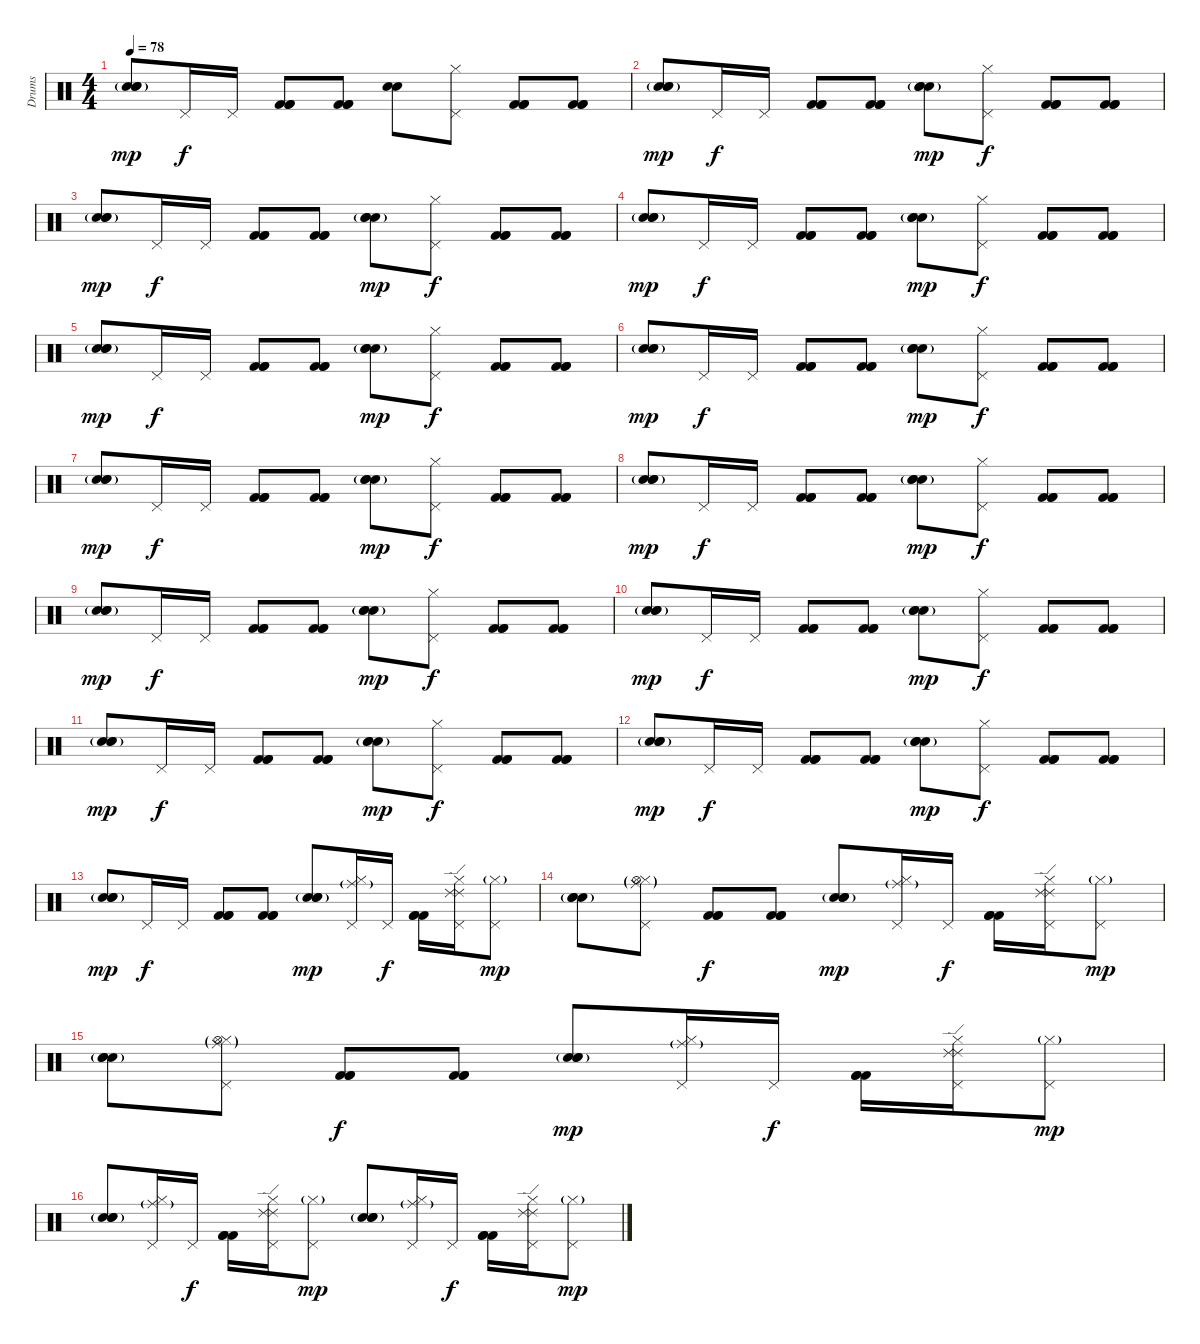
\track ("Drums" "Drums") {instrument percussion}
\staff {score}
\articulation defaults
\ts (4 4)
\tempo 78
\clef neutral
\ks c
("Electric Snare (hit)" "Electric Snare (hit)" "Snare (hit) 2"{g}).8{dy mp} "Pedal Hi-Hat (hit)".16{dy f} "Pedal Hi-Hat (hit)".16 ("Kick (hit) 2" "Kick (hit) 2" "Kick (hit) 2").8 ("Kick (hit) 2" "Kick (hit) 2" "Kick (hit) 2").8 ("Electric Snare (hit)" "Electric Snare (hit)").8 ("Pedal Hi-Hat (hit)" "Hi-Hat (closed)").8 ("Kick (hit) 2" "Kick (hit) 2" "Kick (hit) 2").8 ("Kick (hit) 2" "Kick (hit) 2" "Kick (hit) 2").8 |
("Electric Snare (hit)" "Electric Snare (hit)" "Snare (hit) 2"{g}).8{dy mp} "Pedal Hi-Hat (hit)".16{dy f} "Pedal Hi-Hat (hit)".16 ("Kick (hit) 2" "Kick (hit) 2" "Kick (hit) 2").8 ("Kick (hit) 2" "Kick (hit) 2" "Kick (hit) 2").8 ("Electric Snare (hit)" "Electric Snare (hit)" "Snare (hit) 2"{g}).8{dy mp} ("Pedal Hi-Hat (hit)" "Hi-Hat (closed)").8{dy f} ("Kick (hit) 2" "Kick (hit) 2" "Kick (hit) 2").8 ("Kick (hit) 2" "Kick (hit) 2" "Kick (hit) 2").8 |
("Electric Snare (hit)" "Electric Snare (hit)" "Snare (hit) 2"{g}).8{dy mp} "Pedal Hi-Hat (hit)".16{dy f} "Pedal Hi-Hat (hit)".16 ("Kick (hit) 2" "Kick (hit) 2" "Kick (hit) 2").8 ("Kick (hit) 2" "Kick (hit) 2" "Kick (hit) 2").8 ("Electric Snare (hit)" "Electric Snare (hit)" "Snare (hit) 2"{g}).8{dy mp} ("Pedal Hi-Hat (hit)" "Hi-Hat (closed)").8{dy f} ("Kick (hit) 2" "Kick (hit) 2" "Kick (hit) 2").8 ("Kick (hit) 2" "Kick (hit) 2" "Kick (hit) 2").8 |
("Electric Snare (hit)" "Electric Snare (hit)" "Snare (hit) 2"{g}).8{dy mp} "Pedal Hi-Hat (hit)".16{dy f} "Pedal Hi-Hat (hit)".16 ("Kick (hit) 2" "Kick (hit) 2" "Kick (hit) 2").8 ("Kick (hit) 2" "Kick (hit) 2" "Kick (hit) 2").8 ("Electric Snare (hit)" "Electric Snare (hit)" "Snare (hit) 2"{g}).8{dy mp} ("Pedal Hi-Hat (hit)" "Hi-Hat (closed)").8{dy f} ("Kick (hit) 2" "Kick (hit) 2" "Kick (hit) 2").8 ("Kick (hit) 2" "Kick (hit) 2" "Kick (hit) 2").8 |
("Electric Snare (hit)" "Electric Snare (hit)" "Snare (hit) 2"{g}).8{dy mp} "Pedal Hi-Hat (hit)".16{dy f} "Pedal Hi-Hat (hit)".16 ("Kick (hit) 2" "Kick (hit) 2" "Kick (hit) 2").8 ("Kick (hit) 2" "Kick (hit) 2" "Kick (hit) 2").8 ("Electric Snare (hit)" "Electric Snare (hit)" "Snare (hit) 2"{g}).8{dy mp} ("Pedal Hi-Hat (hit)" "Hi-Hat (closed)").8{dy f} ("Kick (hit) 2" "Kick (hit) 2" "Kick (hit) 2").8 ("Kick (hit) 2" "Kick (hit) 2" "Kick (hit) 2").8 |
("Electric Snare (hit)" "Electric Snare (hit)" "Snare (hit) 2"{g}).8{dy mp} "Pedal Hi-Hat (hit)".16{dy f} "Pedal Hi-Hat (hit)".16 ("Kick (hit) 2" "Kick (hit) 2" "Kick (hit) 2").8 ("Kick (hit) 2" "Kick (hit) 2" "Kick (hit) 2").8 ("Electric Snare (hit)" "Electric Snare (hit)" "Snare (hit) 2"{g}).8{dy mp} ("Pedal Hi-Hat (hit)" "Hi-Hat (closed)").8{dy f} ("Kick (hit) 2" "Kick (hit) 2" "Kick (hit) 2").8 ("Kick (hit) 2" "Kick (hit) 2" "Kick (hit) 2").8 |
("Electric Snare (hit)" "Electric Snare (hit)" "Snare (hit) 2"{g}).8{dy mp} "Pedal Hi-Hat (hit)".16{dy f} "Pedal Hi-Hat (hit)".16 ("Kick (hit) 2" "Kick (hit) 2" "Kick (hit) 2").8 ("Kick (hit) 2" "Kick (hit) 2" "Kick (hit) 2").8 ("Electric Snare (hit)" "Electric Snare (hit)" "Snare (hit) 2"{g}).8{dy mp} ("Pedal Hi-Hat (hit)" "Hi-Hat (closed)").8{dy f} ("Kick (hit) 2" "Kick (hit) 2" "Kick (hit) 2").8 ("Kick (hit) 2" "Kick (hit) 2" "Kick (hit) 2").8 |
("Electric Snare (hit)" "Electric Snare (hit)" "Snare (hit) 2"{g}).8{dy mp} "Pedal Hi-Hat (hit)".16{dy f} "Pedal Hi-Hat (hit)".16 ("Kick (hit) 2" "Kick (hit) 2" "Kick (hit) 2").8 ("Kick (hit) 2" "Kick (hit) 2" "Kick (hit) 2").8 ("Electric Snare (hit)" "Electric Snare (hit)" "Snare (hit) 2"{g}).8{dy mp} ("Pedal Hi-Hat (hit)" "Hi-Hat (closed)").8{dy f} ("Kick (hit) 2" "Kick (hit) 2" "Kick (hit) 2").8 ("Kick (hit) 2" "Kick (hit) 2" "Kick (hit) 2").8 |
("Electric Snare (hit)" "Electric Snare (hit)" "Snare (hit) 2"{g}).8{dy mp} "Pedal Hi-Hat (hit)".16{dy f} "Pedal Hi-Hat (hit)".16 ("Kick (hit) 2" "Kick (hit) 2" "Kick (hit) 2").8 ("Kick (hit) 2" "Kick (hit) 2" "Kick (hit) 2").8 ("Electric Snare (hit)" "Electric Snare (hit)" "Snare (hit) 2"{g}).8{dy mp} ("Pedal Hi-Hat (hit)" "Hi-Hat (closed)").8{dy f} ("Kick (hit) 2" "Kick (hit) 2" "Kick (hit) 2").8 ("Kick (hit) 2" "Kick (hit) 2" "Kick (hit) 2").8 |
("Electric Snare (hit)" "Electric Snare (hit)" "Snare (hit) 2"{g}).8{dy mp} "Pedal Hi-Hat (hit)".16{dy f} "Pedal Hi-Hat (hit)".16 ("Kick (hit) 2" "Kick (hit) 2" "Kick (hit) 2").8 ("Kick (hit) 2" "Kick (hit) 2" "Kick (hit) 2").8 ("Electric Snare (hit)" "Electric Snare (hit)" "Snare (hit) 2"{g}).8{dy mp} ("Pedal Hi-Hat (hit)" "Hi-Hat (closed)").8{dy f} ("Kick (hit) 2" "Kick (hit) 2" "Kick (hit) 2").8 ("Kick (hit) 2" "Kick (hit) 2" "Kick (hit) 2").8 |
("Electric Snare (hit)" "Electric Snare (hit)" "Snare (hit) 2"{g}).8{dy mp} "Pedal Hi-Hat (hit)".16{dy f} "Pedal Hi-Hat (hit)".16 ("Kick (hit) 2" "Kick (hit) 2" "Kick (hit) 2").8 ("Kick (hit) 2" "Kick (hit) 2" "Kick (hit) 2").8 ("Electric Snare (hit)" "Electric Snare (hit)" "Snare (hit) 2"{g}).8{dy mp} ("Pedal Hi-Hat (hit)" "Hi-Hat (closed)").8{dy f} ("Kick (hit) 2" "Kick (hit) 2" "Kick (hit) 2").8 ("Kick (hit) 2" "Kick (hit) 2" "Kick (hit) 2").8 |
("Electric Snare (hit)" "Electric Snare (hit)" "Snare (hit) 2"{g}).8{dy mp} "Pedal Hi-Hat (hit)".16{dy f} "Pedal Hi-Hat (hit)".16 ("Kick (hit) 2" "Kick (hit) 2" "Kick (hit) 2").8 ("Kick (hit) 2" "Kick (hit) 2" "Kick (hit) 2").8 ("Electric Snare (hit)" "Electric Snare (hit)" "Snare (hit) 2"{g}).8{dy mp} ("Pedal Hi-Hat (hit)" "Hi-Hat (closed)").8{dy f} ("Kick (hit) 2" "Kick (hit) 2" "Kick (hit) 2").8 ("Kick (hit) 2" "Kick (hit) 2" "Kick (hit) 2").8 |
("Electric Snare (hit)" "Electric Snare (hit)" "Snare (hit) 2"{g}).8{dy mp} "Pedal Hi-Hat (hit)".16{dy f} "Pedal Hi-Hat (hit)".16 ("Kick (hit) 2" "Kick (hit) 2" "Kick (hit) 2").8 ("Kick (hit) 2" "Kick (hit) 2" "Kick (hit) 2").8 ("Electric Snare (hit)" "Electric Snare (hit)" "Snare (hit) 2"{g}).8{dy mp} ("Pedal Hi-Hat (hit)" "Hi-Hat (closed)" "Ride (middle)"{g}).16 "Pedal Hi-Hat (hit)".16{dy f} ("Kick (hit) 2" "Kick (hit) 2" "Kick (hit) 2").16 ("Pedal Hi-Hat (hit)" "Hi-Hat (closed)" "Ride (edge) 2" "Ride (edge) 2").16 ("Pedal Hi-Hat (hit)" "Hi-Hat (closed)"{g}).8{dy mp} |
("Electric Snare (hit)" "Electric Snare (hit)" "Snare (hit) 2"{g}).8 ("Pedal Hi-Hat (hit)" "Hi-Hat (closed)" "Hi-Hat (open)"{g} "Ride (middle)"{g}).8 ("Kick (hit) 2" "Kick (hit) 2" "Kick (hit) 2").8{dy f} ("Kick (hit) 2" "Kick (hit) 2" "Kick (hit) 2").8 ("Electric Snare (hit)" "Electric Snare (hit)" "Snare (hit) 2"{g}).8{dy mp} ("Pedal Hi-Hat (hit)" "Hi-Hat (closed)" "Ride (middle)"{g}).16 "Pedal Hi-Hat (hit)".16{dy f} ("Kick (hit) 2" "Kick (hit) 2" "Kick (hit) 2").16 ("Pedal Hi-Hat (hit)" "Hi-Hat (closed)" "Ride (edge) 2" "Ride (edge) 2").16 ("Pedal Hi-Hat (hit)" "Hi-Hat (closed)"{g}).8{dy mp} |
("Electric Snare (hit)" "Electric Snare (hit)" "Snare (hit) 2"{g}).8 ("Pedal Hi-Hat (hit)" "Hi-Hat (closed)" "Hi-Hat (open)"{g} "Ride (middle)"{g}).8 ("Kick (hit) 2" "Kick (hit) 2" "Kick (hit) 2").8{dy f} ("Kick (hit) 2" "Kick (hit) 2" "Kick (hit) 2").8 ("Electric Snare (hit)" "Electric Snare (hit)" "Snare (hit) 2"{g}).8{dy mp} ("Pedal Hi-Hat (hit)" "Hi-Hat (closed)" "Ride (middle)"{g}).16 "Pedal Hi-Hat (hit)".16{dy f} ("Kick (hit) 2" "Kick (hit) 2" "Kick (hit) 2").16 ("Pedal Hi-Hat (hit)" "Hi-Hat (closed)" "Ride (edge) 2" "Ride (edge) 2").16 ("Pedal Hi-Hat (hit)" "Hi-Hat (closed)"{g}).8{dy mp} |
("Electric Snare (hit)" "Electric Snare (hit)" "Snare (hit) 2"{g}).8 ("Pedal Hi-Hat (hit)" "Hi-Hat (closed)" "Ride (middle)"{g}).16 "Pedal Hi-Hat (hit)".16{dy f} ("Kick (hit) 2" "Kick (hit) 2" "Kick (hit) 2").16 ("Pedal Hi-Hat (hit)" "Hi-Hat (closed)" "Ride (edge) 2" "Ride (edge) 2").16 ("Pedal Hi-Hat (hit)" "Hi-Hat (closed)"{g}).8{dy mp} ("Electric Snare (hit)" "Electric Snare (hit)" "Snare (hit) 2"{g}).8 ("Pedal Hi-Hat (hit)" "Hi-Hat (closed)" "Ride (middle)"{g}).16 "Pedal Hi-Hat (hit)".16{dy f} ("Kick (hit) 2" "Kick (hit) 2" "Kick (hit) 2").16 ("Pedal Hi-Hat (hit)" "Hi-Hat (closed)" "Ride (edge) 2" "Ride (edge) 2").16 ("Pedal Hi-Hat (hit)" "Hi-Hat (closed)"{g}).8{dy mp}
